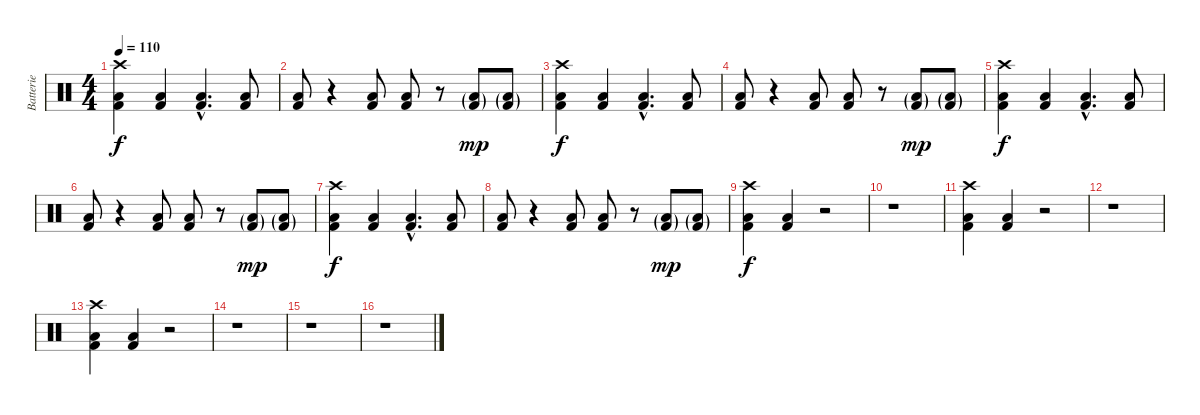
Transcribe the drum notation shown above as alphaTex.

\track ("Batterie" "Batterie") {instrument percussion}
\staff {score}
\articulation defaults
\ts (4 4)
\section ("" "")
\tempo 110
\clef neutral
\ks c
("Crash high (hit)" "Low Tom (hit)" "Kick (hit) 2").4{dy f} ("Low Tom (hit)" "Kick (hit) 2").4 ("Low Tom (hit)"{hac} "Kick (hit) 2"{hac}).4{d} ("Low Tom (hit)" "Kick (hit) 2").8 |
("Low Tom (hit)" "Kick (hit) 2").8 r.4 ("Low Tom (hit)" "Kick (hit) 2").8 ("Low Tom (hit)" "Kick (hit) 2").8 r.8 ("Low Tom (hit)"{g} "Kick (hit) 2"{g}).8{dy mp} ("Low Tom (hit)"{g} "Kick (hit) 2"{g}).8 |
("Crash high (hit)" "Low Tom (hit)" "Kick (hit) 2").4{dy f} ("Low Tom (hit)" "Kick (hit) 2").4 ("Low Tom (hit)"{hac} "Kick (hit) 2"{hac}).4{d} ("Low Tom (hit)" "Kick (hit) 2").8 |
("Low Tom (hit)" "Kick (hit) 2").8 r.4 ("Low Tom (hit)" "Kick (hit) 2").8 ("Low Tom (hit)" "Kick (hit) 2").8 r.8 ("Low Tom (hit)"{g} "Kick (hit) 2"{g}).8{dy mp} ("Low Tom (hit)"{g} "Kick (hit) 2"{g}).8 |
("Crash high (hit)" "Low Tom (hit)" "Kick (hit) 2").4{dy f} ("Low Tom (hit)" "Kick (hit) 2").4 ("Low Tom (hit)"{hac} "Kick (hit) 2"{hac}).4{d} ("Low Tom (hit)" "Kick (hit) 2").8 |
("Low Tom (hit)" "Kick (hit) 2").8 r.4 ("Low Tom (hit)" "Kick (hit) 2").8 ("Low Tom (hit)" "Kick (hit) 2").8 r.8 ("Low Tom (hit)"{g} "Kick (hit) 2"{g}).8{dy mp} ("Low Tom (hit)"{g} "Kick (hit) 2"{g}).8 |
("Crash high (hit)" "Low Tom (hit)" "Kick (hit) 2").4{dy f} ("Low Tom (hit)" "Kick (hit) 2").4 ("Low Tom (hit)"{hac} "Kick (hit) 2"{hac}).4{d} ("Low Tom (hit)" "Kick (hit) 2").8 |
("Low Tom (hit)" "Kick (hit) 2").8 r.4 ("Low Tom (hit)" "Kick (hit) 2").8 ("Low Tom (hit)" "Kick (hit) 2").8 r.8 ("Low Tom (hit)"{g} "Kick (hit) 2"{g}).8{dy mp} ("Low Tom (hit)"{g} "Kick (hit) 2"{g}).8 |
\section ("" "")
("Crash high (hit)" "Low Tom (hit)" "Kick (hit) 2").4{dy f} ("Low Tom (hit)" "Kick (hit) 2").4 r.2 |
r.1 |
("Crash high (hit)" "Low Tom (hit)" "Kick (hit) 2").4 ("Low Tom (hit)" "Kick (hit) 2").4 r.2 |
r.1 |
("Crash high (hit)" "Low Tom (hit)" "Kick (hit) 2").4 ("Low Tom (hit)" "Kick (hit) 2").4 r.2 |
r.1 |
r.1 |
r.1
